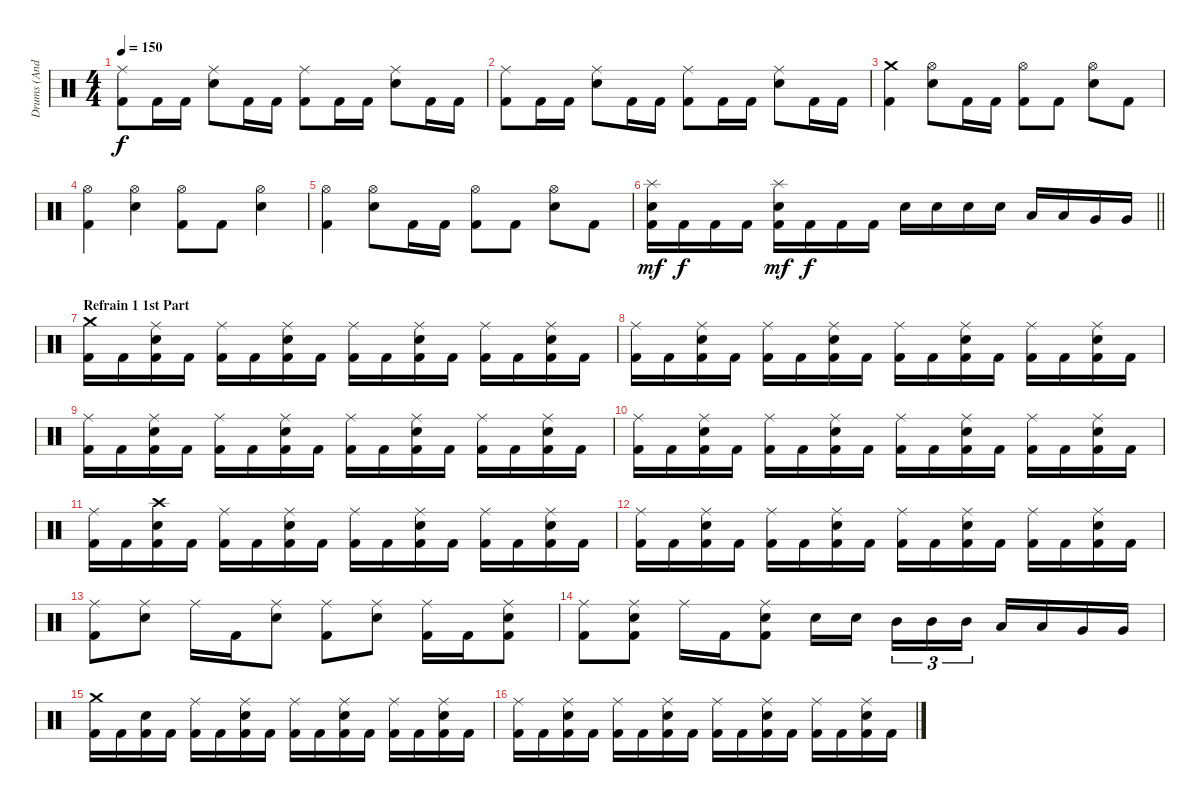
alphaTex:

\track ("Drums (Andy C)" "Drums (And") {instrument percussion}
\staff
\articulation defaults
\ts (4 4)
\tempo 150
\clef neutral
\ks c
("Ride (middle)" "Kick (hit) 2").8{dy f} "Kick (hit) 2".16 "Kick (hit) 2".16 ("Ride (middle)" "Electric Snare (hit)").8 "Kick (hit) 2".16 "Kick (hit) 2".16 ("Ride (middle)" "Kick (hit) 2").8 "Kick (hit) 2".16 "Kick (hit) 2".16 ("Ride (middle)" "Electric Snare (hit)").8 "Kick (hit) 2".16 "Kick (hit) 2".16 |
("Ride (middle)" "Kick (hit) 2").8 "Kick (hit) 2".16 "Kick (hit) 2".16 ("Ride (middle)" "Electric Snare (hit)").8 "Kick (hit) 2".16 "Kick (hit) 2".16 ("Ride (middle)" "Kick (hit) 2").8 "Kick (hit) 2".16 "Kick (hit) 2".16 ("Ride (middle)" "Electric Snare (hit)").8 "Kick (hit) 2".16 "Kick (hit) 2".16 |
("Crash medium (hit)" "Kick (hit) 2").4 ("Hi-Hat (open)" "Electric Snare (hit)").8 "Kick (hit) 2".16 "Kick (hit) 2".16 ("Hi-Hat (open)" "Kick (hit) 2").8 "Kick (hit) 2".8 ("Hi-Hat (open)" "Electric Snare (hit)").8 "Kick (hit) 2".8 |
("Hi-Hat (open)" "Kick (hit) 2").4 ("Hi-Hat (open)" "Electric Snare (hit)").4 ("Hi-Hat (open)" "Kick (hit) 2").8 "Kick (hit) 2".8 ("Hi-Hat (open)" "Electric Snare (hit)").4 |
("Hi-Hat (open)" "Kick (hit) 2").4 ("Hi-Hat (open)" "Electric Snare (hit)").8 "Kick (hit) 2".16 "Kick (hit) 2".16 ("Hi-Hat (open)" "Kick (hit) 2").8 "Kick (hit) 2".8 ("Hi-Hat (open)" "Electric Snare (hit)").8 "Kick (hit) 2".8 |
\barLineRight lightlight
("Splash (hit)" "Kick (hit) 2" "Electric Snare (hit)").16{dy mf} "Kick (hit) 2".16{dy f} "Kick (hit) 2".16 "Kick (hit) 2".16 ("Splash (hit)" "Kick (hit) 2" "Electric Snare (hit)").16{dy mf} "Kick (hit) 2".16{dy f} "Kick (hit) 2".16 "Kick (hit) 2".16 "Electric Snare (hit)".16 "Electric Snare (hit)".16 "Electric Snare (hit)".16 "Electric Snare (hit)".16 "Low Tom (hit)".16 "Low Tom (hit)".16 "Very Low Tom (hit)".16 "Very Low Tom (hit)".16 |
\section ("" "Refrain 1 1st Part")
("Crash medium (hit)" "Kick (hit) 2").16 "Kick (hit) 2".16 ("Ride (middle)" "Kick (hit) 2" "Electric Snare (hit)").16 "Kick (hit) 2".16 ("Ride (middle)" "Kick (hit) 2").16 "Kick (hit) 2".16 ("Ride (middle)" "Kick (hit) 2" "Electric Snare (hit)").16 "Kick (hit) 2".16 ("Ride (middle)" "Kick (hit) 2").16 "Kick (hit) 2".16 ("Ride (middle)" "Kick (hit) 2" "Electric Snare (hit)").16 "Kick (hit) 2".16 ("Ride (middle)" "Kick (hit) 2").16 "Kick (hit) 2".16 ("Ride (middle)" "Kick (hit) 2" "Electric Snare (hit)").16 "Kick (hit) 2".16 |
("Ride (middle)" "Kick (hit) 2").16 "Kick (hit) 2".16 ("Ride (middle)" "Kick (hit) 2" "Electric Snare (hit)").16 "Kick (hit) 2".16 ("Ride (middle)" "Kick (hit) 2").16 "Kick (hit) 2".16 ("Ride (middle)" "Kick (hit) 2" "Electric Snare (hit)").16 "Kick (hit) 2".16 ("Ride (middle)" "Kick (hit) 2").16 "Kick (hit) 2".16 ("Ride (middle)" "Kick (hit) 2" "Electric Snare (hit)").16 "Kick (hit) 2".16 ("Ride (middle)" "Kick (hit) 2").16 "Kick (hit) 2".16 ("Ride (middle)" "Kick (hit) 2" "Electric Snare (hit)").16 "Kick (hit) 2".16 |
("Ride (middle)" "Kick (hit) 2").16 "Kick (hit) 2".16 ("Ride (middle)" "Kick (hit) 2" "Electric Snare (hit)").16 "Kick (hit) 2".16 ("Ride (middle)" "Kick (hit) 2").16 "Kick (hit) 2".16 ("Ride (middle)" "Kick (hit) 2" "Electric Snare (hit)").16 "Kick (hit) 2".16 ("Ride (middle)" "Kick (hit) 2").16 "Kick (hit) 2".16 ("Ride (middle)" "Kick (hit) 2" "Electric Snare (hit)").16 "Kick (hit) 2".16 ("Ride (middle)" "Kick (hit) 2").16 "Kick (hit) 2".16 ("Ride (middle)" "Kick (hit) 2" "Electric Snare (hit)").16 "Kick (hit) 2".16 |
("Ride (middle)" "Kick (hit) 2").16 "Kick (hit) 2".16 ("Ride (middle)" "Kick (hit) 2" "Electric Snare (hit)").16 "Kick (hit) 2".16 ("Ride (middle)" "Kick (hit) 2").16 "Kick (hit) 2".16 ("Ride (middle)" "Kick (hit) 2" "Electric Snare (hit)").16 "Kick (hit) 2".16 ("Ride (middle)" "Kick (hit) 2").16 "Kick (hit) 2".16 ("Ride (middle)" "Kick (hit) 2" "Electric Snare (hit)").16 "Kick (hit) 2".16 ("Ride (middle)" "Kick (hit) 2").16 "Kick (hit) 2".16 ("Ride (middle)" "Kick (hit) 2" "Electric Snare (hit)").16 "Kick (hit) 2".16 |
("Ride (middle)" "Kick (hit) 2").16 "Kick (hit) 2".16 ("Crash high (hit)" "Kick (hit) 2" "Electric Snare (hit)").16 "Kick (hit) 2".16 ("Ride (middle)" "Kick (hit) 2").16 "Kick (hit) 2".16 ("Ride (middle)" "Kick (hit) 2" "Electric Snare (hit)").16 "Kick (hit) 2".16 ("Ride (middle)" "Kick (hit) 2").16 "Kick (hit) 2".16 ("Ride (middle)" "Kick (hit) 2" "Electric Snare (hit)").16 "Kick (hit) 2".16 ("Ride (middle)" "Kick (hit) 2").16 "Kick (hit) 2".16 ("Ride (middle)" "Kick (hit) 2" "Electric Snare (hit)").16 "Kick (hit) 2".16 |
("Ride (middle)" "Kick (hit) 2").16 "Kick (hit) 2".16 ("Ride (middle)" "Kick (hit) 2" "Electric Snare (hit)").16 "Kick (hit) 2".16 ("Ride (middle)" "Kick (hit) 2").16 "Kick (hit) 2".16 ("Ride (middle)" "Kick (hit) 2" "Electric Snare (hit)").16 "Kick (hit) 2".16 ("Ride (middle)" "Kick (hit) 2").16 "Kick (hit) 2".16 ("Ride (middle)" "Kick (hit) 2" "Electric Snare (hit)").16 "Kick (hit) 2".16 ("Ride (middle)" "Kick (hit) 2").16 "Kick (hit) 2".16 ("Ride (middle)" "Kick (hit) 2" "Electric Snare (hit)").16 "Kick (hit) 2".16 |
("Ride (middle)" "Kick (hit) 2").8 ("Ride (middle)" "Electric Snare (hit)").8 "Ride (middle)".16 "Kick (hit) 2".16 ("Ride (middle)" "Electric Snare (hit)").8 ("Ride (middle)" "Kick (hit) 2").8 ("Ride (middle)" "Electric Snare (hit)").8 ("Ride (middle)" "Kick (hit) 2").16 "Kick (hit) 2".16 ("Ride (middle)" "Kick (hit) 2" "Electric Snare (hit)").8 |
("Ride (middle)" "Kick (hit) 2").8 ("Ride (middle)" "Kick (hit) 2" "Electric Snare (hit)").8 "Ride (middle)".16 "Kick (hit) 2".16 ("Ride (middle)" "Kick (hit) 2" "Electric Snare (hit)").8 "Electric Snare (hit)".16 "Electric Snare (hit)".16{beam splitsecondary} "Mid Tom (hit)".16{tu (3 2)} "Mid Tom (hit)".16{tu (3 2)} "Mid Tom (hit)".16{tu (3 2)} "Low Tom (hit)".16 "Low Tom (hit)".16 "Very Low Tom (hit)".16 "Very Low Tom (hit)".16 |
("Crash medium (hit)" "Kick (hit) 2").16 "Kick (hit) 2".16 ("Kick (hit) 2" "Electric Snare (hit)").16 "Kick (hit) 2".16 ("Ride (middle)" "Kick (hit) 2").16 "Kick (hit) 2".16 ("Ride (middle)" "Kick (hit) 2" "Electric Snare (hit)").16 "Kick (hit) 2".16 ("Ride (middle)" "Kick (hit) 2").16 "Kick (hit) 2".16 ("Ride (middle)" "Kick (hit) 2" "Electric Snare (hit)").16 "Kick (hit) 2".16 ("Ride (middle)" "Kick (hit) 2").16 "Kick (hit) 2".16 ("Ride (middle)" "Kick (hit) 2" "Electric Snare (hit)").16 "Kick (hit) 2".16 |
("Ride (middle)" "Kick (hit) 2").16 "Kick (hit) 2".16 ("Ride (middle)" "Kick (hit) 2" "Electric Snare (hit)").16 "Kick (hit) 2".16 ("Ride (middle)" "Kick (hit) 2").16 "Kick (hit) 2".16 ("Ride (middle)" "Kick (hit) 2" "Electric Snare (hit)").16 "Kick (hit) 2".16 ("Ride (middle)" "Kick (hit) 2").16 "Kick (hit) 2".16 ("Ride (middle)" "Kick (hit) 2" "Electric Snare (hit)").16 "Kick (hit) 2".16 ("Ride (middle)" "Kick (hit) 2").16 "Kick (hit) 2".16 ("Ride (middle)" "Kick (hit) 2" "Electric Snare (hit)").16 "Kick (hit) 2".16
